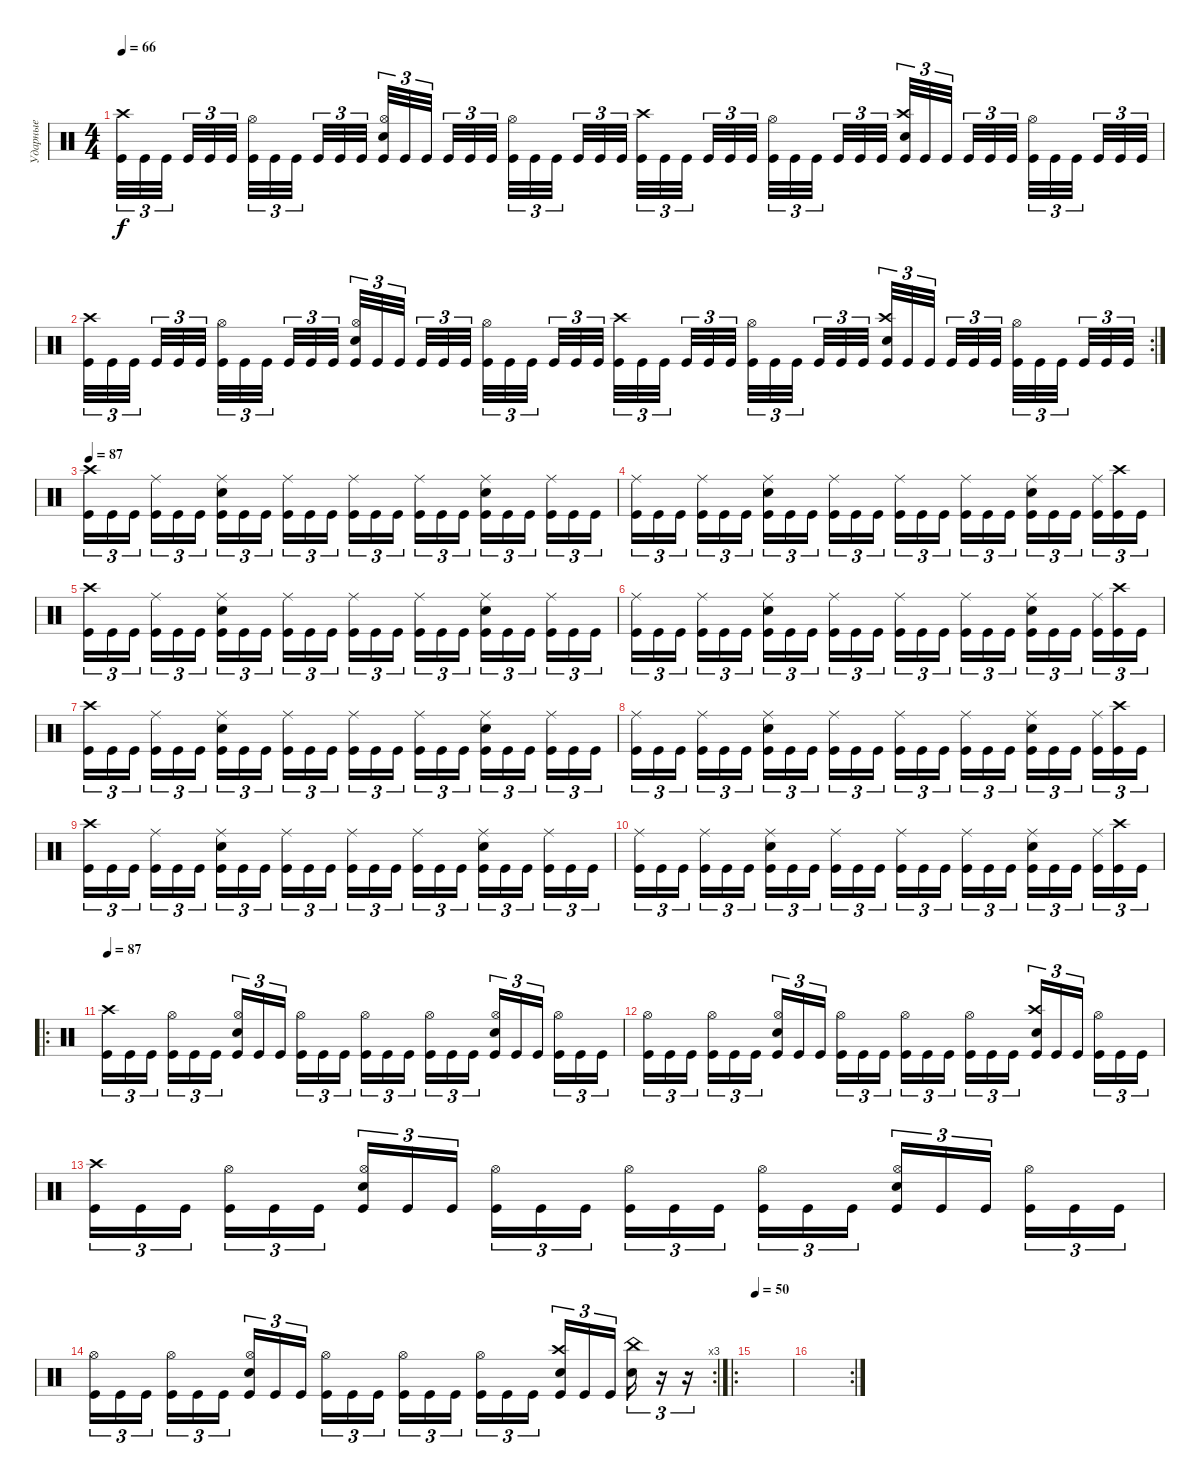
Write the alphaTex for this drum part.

\track ("Ударные" "Ударные") {instrument percussion}
\staff {score}
\articulation defaults
\ts (4 4)
\tempo 66
\clef neutral
\ks c
("Kick (hit)" "Crash high (hit)").32{tu (3 2) dy f} "Kick (hit)".32{tu (3 2)} "Kick (hit)".32{tu (3 2) beam splitsecondary} "Kick (hit)".32{tu (3 2)} "Kick (hit)".32{tu (3 2)} "Kick (hit)".32{tu (3 2) beam splitsecondary} ("Kick (hit)" "Hi-Hat (open)").32{tu (3 2)} "Kick (hit)".32{tu (3 2)} "Kick (hit)".32{tu (3 2) beam splitsecondary} "Kick (hit)".32{tu (3 2)} "Kick (hit)".32{tu (3 2)} "Kick (hit)".32{tu (3 2)} ("Kick (hit)" "Hi-Hat (open)" "Snare (hit) 2").32{tu (3 2)} "Kick (hit)".32{tu (3 2)} "Kick (hit)".32{tu (3 2) beam splitsecondary} "Kick (hit)".32{tu (3 2)} "Kick (hit)".32{tu (3 2)} "Kick (hit)".32{tu (3 2) beam splitsecondary} ("Kick (hit)" "Hi-Hat (open)").32{tu (3 2)} "Kick (hit)".32{tu (3 2)} "Kick (hit)".32{tu (3 2) beam splitsecondary} "Kick (hit)".32{tu (3 2)} "Kick (hit)".32{tu (3 2)} "Kick (hit)".32{tu (3 2)} ("Kick (hit)" "Crash high (hit)").32{tu (3 2)} "Kick (hit)".32{tu (3 2)} "Kick (hit)".32{tu (3 2) beam splitsecondary} "Kick (hit)".32{tu (3 2)} "Kick (hit)".32{tu (3 2)} "Kick (hit)".32{tu (3 2) beam splitsecondary} ("Kick (hit)" "Hi-Hat (open)").32{tu (3 2)} "Kick (hit)".32{tu (3 2)} "Kick (hit)".32{tu (3 2) beam splitsecondary} "Kick (hit)".32{tu (3 2)} "Kick (hit)".32{tu (3 2)} "Kick (hit)".32{tu (3 2)} ("Kick (hit)" "Crash high (hit)" "Snare (hit) 2").32{tu (3 2)} "Kick (hit)".32{tu (3 2)} "Kick (hit)".32{tu (3 2) beam splitsecondary} "Kick (hit)".32{tu (3 2)} "Kick (hit)".32{tu (3 2)} "Kick (hit)".32{tu (3 2) beam splitsecondary} ("Kick (hit)" "Hi-Hat (open)").32{tu (3 2)} "Kick (hit)".32{tu (3 2)} "Kick (hit)".32{tu (3 2) beam splitsecondary} "Kick (hit)".32{tu (3 2)} "Kick (hit)".32{tu (3 2)} "Kick (hit)".32{tu (3 2)} |
\rc 2
("Kick (hit)" "Crash high (hit)").32{tu (3 2)} "Kick (hit)".32{tu (3 2)} "Kick (hit)".32{tu (3 2) beam splitsecondary} "Kick (hit)".32{tu (3 2)} "Kick (hit)".32{tu (3 2)} "Kick (hit)".32{tu (3 2) beam splitsecondary} ("Kick (hit)" "Hi-Hat (open)").32{tu (3 2)} "Kick (hit)".32{tu (3 2)} "Kick (hit)".32{tu (3 2) beam splitsecondary} "Kick (hit)".32{tu (3 2)} "Kick (hit)".32{tu (3 2)} "Kick (hit)".32{tu (3 2)} ("Kick (hit)" "Hi-Hat (open)" "Snare (hit) 2").32{tu (3 2)} "Kick (hit)".32{tu (3 2)} "Kick (hit)".32{tu (3 2) beam splitsecondary} "Kick (hit)".32{tu (3 2)} "Kick (hit)".32{tu (3 2)} "Kick (hit)".32{tu (3 2) beam splitsecondary} ("Kick (hit)" "Hi-Hat (open)").32{tu (3 2)} "Kick (hit)".32{tu (3 2)} "Kick (hit)".32{tu (3 2) beam splitsecondary} "Kick (hit)".32{tu (3 2)} "Kick (hit)".32{tu (3 2)} "Kick (hit)".32{tu (3 2)} ("Kick (hit)" "Crash high (hit)").32{tu (3 2)} "Kick (hit)".32{tu (3 2)} "Kick (hit)".32{tu (3 2) beam splitsecondary} "Kick (hit)".32{tu (3 2)} "Kick (hit)".32{tu (3 2)} "Kick (hit)".32{tu (3 2) beam splitsecondary} ("Kick (hit)" "Hi-Hat (open)").32{tu (3 2)} "Kick (hit)".32{tu (3 2)} "Kick (hit)".32{tu (3 2) beam splitsecondary} "Kick (hit)".32{tu (3 2)} "Kick (hit)".32{tu (3 2)} "Kick (hit)".32{tu (3 2)} ("Kick (hit)" "Crash high (hit)" "Snare (hit) 2").32{tu (3 2)} "Kick (hit)".32{tu (3 2)} "Kick (hit)".32{tu (3 2) beam splitsecondary} "Kick (hit)".32{tu (3 2)} "Kick (hit)".32{tu (3 2)} "Kick (hit)".32{tu (3 2) beam splitsecondary} ("Kick (hit)" "Hi-Hat (open)").32{tu (3 2)} "Kick (hit)".32{tu (3 2)} "Kick (hit)".32{tu (3 2) beam splitsecondary} "Kick (hit)".32{tu (3 2)} "Kick (hit)".32{tu (3 2)} "Kick (hit)".32{tu (3 2)} |
\tempo 87
("Crash high (hit)" "Kick (hit)").16{tu (3 2)} "Kick (hit)".16{tu (3 2)} "Kick (hit)".16{tu (3 2) beam splitsecondary} ("Ride (middle)" "Kick (hit)").16{tu (3 2)} "Kick (hit)".16{tu (3 2)} "Kick (hit)".16{tu (3 2)} ("Ride (middle)" "Snare (hit) 2" "Kick (hit)").16{tu (3 2)} "Kick (hit)".16{tu (3 2)} "Kick (hit)".16{tu (3 2) beam splitsecondary} ("Ride (middle)" "Kick (hit)").16{tu (3 2)} "Kick (hit)".16{tu (3 2)} "Kick (hit)".16{tu (3 2)} ("Ride (middle)" "Kick (hit)").16{tu (3 2)} "Kick (hit)".16{tu (3 2)} "Kick (hit)".16{tu (3 2) beam splitsecondary} ("Ride (middle)" "Kick (hit)").16{tu (3 2)} "Kick (hit)".16{tu (3 2)} "Kick (hit)".16{tu (3 2)} ("Ride (middle)" "Snare (hit) 2" "Kick (hit)").16{tu (3 2)} "Kick (hit)".16{tu (3 2)} "Kick (hit)".16{tu (3 2) beam splitsecondary} ("Ride (middle)" "Kick (hit)").16{tu (3 2)} "Kick (hit)".16{tu (3 2)} "Kick (hit)".16{tu (3 2)} |
("Ride (middle)" "Kick (hit)").16{tu (3 2)} "Kick (hit)".16{tu (3 2)} "Kick (hit)".16{tu (3 2) beam splitsecondary} ("Ride (middle)" "Kick (hit)").16{tu (3 2)} "Kick (hit)".16{tu (3 2)} "Kick (hit)".16{tu (3 2)} ("Ride (middle)" "Snare (hit) 2" "Kick (hit)").16{tu (3 2)} "Kick (hit)".16{tu (3 2)} "Kick (hit)".16{tu (3 2) beam splitsecondary} ("Ride (middle)" "Kick (hit)").16{tu (3 2)} "Kick (hit)".16{tu (3 2)} "Kick (hit)".16{tu (3 2)} ("Ride (middle)" "Kick (hit)").16{tu (3 2)} "Kick (hit)".16{tu (3 2)} "Kick (hit)".16{tu (3 2) beam splitsecondary} ("Ride (middle)" "Kick (hit)").16{tu (3 2)} "Kick (hit)".16{tu (3 2)} "Kick (hit)".16{tu (3 2)} ("Ride (middle)" "Snare (hit) 2" "Kick (hit)").16{tu (3 2)} "Kick (hit)".16{tu (3 2)} "Kick (hit)".16{tu (3 2) beam splitsecondary} ("Ride (middle)" "Kick (hit)").16{tu (3 2)} ("Crash high (hit)" "Kick (hit)").16{tu (3 2)} "Kick (hit)".16{tu (3 2)} |
("Crash high (hit)" "Kick (hit)").16{tu (3 2)} "Kick (hit)".16{tu (3 2)} "Kick (hit)".16{tu (3 2) beam splitsecondary} ("Ride (middle)" "Kick (hit)").16{tu (3 2)} "Kick (hit)".16{tu (3 2)} "Kick (hit)".16{tu (3 2)} ("Ride (middle)" "Snare (hit) 2" "Kick (hit)").16{tu (3 2)} "Kick (hit)".16{tu (3 2)} "Kick (hit)".16{tu (3 2) beam splitsecondary} ("Ride (middle)" "Kick (hit)").16{tu (3 2)} "Kick (hit)".16{tu (3 2)} "Kick (hit)".16{tu (3 2)} ("Ride (middle)" "Kick (hit)").16{tu (3 2)} "Kick (hit)".16{tu (3 2)} "Kick (hit)".16{tu (3 2) beam splitsecondary} ("Ride (middle)" "Kick (hit)").16{tu (3 2)} "Kick (hit)".16{tu (3 2)} "Kick (hit)".16{tu (3 2)} ("Ride (middle)" "Snare (hit) 2" "Kick (hit)").16{tu (3 2)} "Kick (hit)".16{tu (3 2)} "Kick (hit)".16{tu (3 2) beam splitsecondary} ("Ride (middle)" "Kick (hit)").16{tu (3 2)} "Kick (hit)".16{tu (3 2)} "Kick (hit)".16{tu (3 2)} |
("Ride (middle)" "Kick (hit)").16{tu (3 2)} "Kick (hit)".16{tu (3 2)} "Kick (hit)".16{tu (3 2) beam splitsecondary} ("Ride (middle)" "Kick (hit)").16{tu (3 2)} "Kick (hit)".16{tu (3 2)} "Kick (hit)".16{tu (3 2)} ("Ride (middle)" "Snare (hit) 2" "Kick (hit)").16{tu (3 2)} "Kick (hit)".16{tu (3 2)} "Kick (hit)".16{tu (3 2) beam splitsecondary} ("Ride (middle)" "Kick (hit)").16{tu (3 2)} "Kick (hit)".16{tu (3 2)} "Kick (hit)".16{tu (3 2)} ("Ride (middle)" "Kick (hit)").16{tu (3 2)} "Kick (hit)".16{tu (3 2)} "Kick (hit)".16{tu (3 2) beam splitsecondary} ("Ride (middle)" "Kick (hit)").16{tu (3 2)} "Kick (hit)".16{tu (3 2)} "Kick (hit)".16{tu (3 2)} ("Ride (middle)" "Snare (hit) 2" "Kick (hit)").16{tu (3 2)} "Kick (hit)".16{tu (3 2)} "Kick (hit)".16{tu (3 2) beam splitsecondary} ("Ride (middle)" "Kick (hit)").16{tu (3 2)} ("Crash high (hit)" "Kick (hit)").16{tu (3 2)} "Kick (hit)".16{tu (3 2)} |
("Crash high (hit)" "Kick (hit)").16{tu (3 2)} "Kick (hit)".16{tu (3 2)} "Kick (hit)".16{tu (3 2) beam splitsecondary} ("Ride (middle)" "Kick (hit)").16{tu (3 2)} "Kick (hit)".16{tu (3 2)} "Kick (hit)".16{tu (3 2)} ("Ride (middle)" "Snare (hit) 2" "Kick (hit)").16{tu (3 2)} "Kick (hit)".16{tu (3 2)} "Kick (hit)".16{tu (3 2) beam splitsecondary} ("Ride (middle)" "Kick (hit)").16{tu (3 2)} "Kick (hit)".16{tu (3 2)} "Kick (hit)".16{tu (3 2)} ("Ride (middle)" "Kick (hit)").16{tu (3 2)} "Kick (hit)".16{tu (3 2)} "Kick (hit)".16{tu (3 2) beam splitsecondary} ("Ride (middle)" "Kick (hit)").16{tu (3 2)} "Kick (hit)".16{tu (3 2)} "Kick (hit)".16{tu (3 2)} ("Ride (middle)" "Snare (hit) 2" "Kick (hit)").16{tu (3 2)} "Kick (hit)".16{tu (3 2)} "Kick (hit)".16{tu (3 2) beam splitsecondary} ("Ride (middle)" "Kick (hit)").16{tu (3 2)} "Kick (hit)".16{tu (3 2)} "Kick (hit)".16{tu (3 2)} |
("Ride (middle)" "Kick (hit)").16{tu (3 2)} "Kick (hit)".16{tu (3 2)} "Kick (hit)".16{tu (3 2) beam splitsecondary} ("Ride (middle)" "Kick (hit)").16{tu (3 2)} "Kick (hit)".16{tu (3 2)} "Kick (hit)".16{tu (3 2)} ("Ride (middle)" "Snare (hit) 2" "Kick (hit)").16{tu (3 2)} "Kick (hit)".16{tu (3 2)} "Kick (hit)".16{tu (3 2) beam splitsecondary} ("Ride (middle)" "Kick (hit)").16{tu (3 2)} "Kick (hit)".16{tu (3 2)} "Kick (hit)".16{tu (3 2)} ("Ride (middle)" "Kick (hit)").16{tu (3 2)} "Kick (hit)".16{tu (3 2)} "Kick (hit)".16{tu (3 2) beam splitsecondary} ("Ride (middle)" "Kick (hit)").16{tu (3 2)} "Kick (hit)".16{tu (3 2)} "Kick (hit)".16{tu (3 2)} ("Ride (middle)" "Snare (hit) 2" "Kick (hit)").16{tu (3 2)} "Kick (hit)".16{tu (3 2)} "Kick (hit)".16{tu (3 2) beam splitsecondary} ("Ride (middle)" "Kick (hit)").16{tu (3 2)} ("Crash high (hit)" "Kick (hit)").16{tu (3 2)} "Kick (hit)".16{tu (3 2)} |
("Crash high (hit)" "Kick (hit)").16{tu (3 2)} "Kick (hit)".16{tu (3 2)} "Kick (hit)".16{tu (3 2) beam splitsecondary} ("Ride (middle)" "Kick (hit)").16{tu (3 2)} "Kick (hit)".16{tu (3 2)} "Kick (hit)".16{tu (3 2)} ("Ride (middle)" "Snare (hit) 2" "Kick (hit)").16{tu (3 2)} "Kick (hit)".16{tu (3 2)} "Kick (hit)".16{tu (3 2) beam splitsecondary} ("Ride (middle)" "Kick (hit)").16{tu (3 2)} "Kick (hit)".16{tu (3 2)} "Kick (hit)".16{tu (3 2)} ("Ride (middle)" "Kick (hit)").16{tu (3 2)} "Kick (hit)".16{tu (3 2)} "Kick (hit)".16{tu (3 2) beam splitsecondary} ("Ride (middle)" "Kick (hit)").16{tu (3 2)} "Kick (hit)".16{tu (3 2)} "Kick (hit)".16{tu (3 2)} ("Ride (middle)" "Snare (hit) 2" "Kick (hit)").16{tu (3 2)} "Kick (hit)".16{tu (3 2)} "Kick (hit)".16{tu (3 2) beam splitsecondary} ("Ride (middle)" "Kick (hit)").16{tu (3 2)} "Kick (hit)".16{tu (3 2)} "Kick (hit)".16{tu (3 2)} |
("Ride (middle)" "Kick (hit)").16{tu (3 2)} "Kick (hit)".16{tu (3 2)} "Kick (hit)".16{tu (3 2) beam splitsecondary} ("Ride (middle)" "Kick (hit)").16{tu (3 2)} "Kick (hit)".16{tu (3 2)} "Kick (hit)".16{tu (3 2)} ("Ride (middle)" "Snare (hit) 2" "Kick (hit)").16{tu (3 2)} "Kick (hit)".16{tu (3 2)} "Kick (hit)".16{tu (3 2) beam splitsecondary} ("Ride (middle)" "Kick (hit)").16{tu (3 2)} "Kick (hit)".16{tu (3 2)} "Kick (hit)".16{tu (3 2)} ("Ride (middle)" "Kick (hit)").16{tu (3 2)} "Kick (hit)".16{tu (3 2)} "Kick (hit)".16{tu (3 2) beam splitsecondary} ("Ride (middle)" "Kick (hit)").16{tu (3 2)} "Kick (hit)".16{tu (3 2)} "Kick (hit)".16{tu (3 2)} ("Ride (middle)" "Snare (hit) 2" "Kick (hit)").16{tu (3 2)} "Kick (hit)".16{tu (3 2)} "Kick (hit)".16{tu (3 2) beam splitsecondary} ("Ride (middle)" "Kick (hit)").16{tu (3 2)} ("Crash high (hit)" "Kick (hit)").16{tu (3 2)} "Kick (hit)".16{tu (3 2)} |
\ro
\tempo 87
("Crash high (hit)" "Kick (hit)").16{tu (3 2)} "Kick (hit)".16{tu (3 2)} "Kick (hit)".16{tu (3 2) beam splitsecondary} ("Hi-Hat (open)" "Kick (hit)").16{tu (3 2)} "Kick (hit)".16{tu (3 2)} "Kick (hit)".16{tu (3 2)} ("Snare (hit) 2" "Hi-Hat (open)" "Kick (hit)").16{tu (3 2)} "Kick (hit)".16{tu (3 2)} "Kick (hit)".16{tu (3 2) beam splitsecondary} ("Hi-Hat (open)" "Kick (hit)").16{tu (3 2)} "Kick (hit)".16{tu (3 2)} "Kick (hit)".16{tu (3 2)} ("Hi-Hat (open)" "Kick (hit)").16{tu (3 2)} "Kick (hit)".16{tu (3 2)} "Kick (hit)".16{tu (3 2) beam splitsecondary} ("Hi-Hat (open)" "Kick (hit)").16{tu (3 2)} "Kick (hit)".16{tu (3 2)} "Kick (hit)".16{tu (3 2)} ("Snare (hit) 2" "Hi-Hat (open)" "Kick (hit)").16{tu (3 2)} "Kick (hit)".16{tu (3 2)} "Kick (hit)".16{tu (3 2) beam splitsecondary} ("Hi-Hat (open)" "Kick (hit)").16{tu (3 2)} "Kick (hit)".16{tu (3 2)} "Kick (hit)".16{tu (3 2)} |
("Hi-Hat (open)" "Kick (hit)").16{tu (3 2)} "Kick (hit)".16{tu (3 2)} "Kick (hit)".16{tu (3 2) beam splitsecondary} ("Hi-Hat (open)" "Kick (hit)").16{tu (3 2)} "Kick (hit)".16{tu (3 2)} "Kick (hit)".16{tu (3 2)} ("Snare (hit) 2" "Hi-Hat (open)" "Kick (hit)").16{tu (3 2)} "Kick (hit)".16{tu (3 2)} "Kick (hit)".16{tu (3 2) beam splitsecondary} ("Hi-Hat (open)" "Kick (hit)").16{tu (3 2)} "Kick (hit)".16{tu (3 2)} "Kick (hit)".16{tu (3 2)} ("Hi-Hat (open)" "Kick (hit)").16{tu (3 2)} "Kick (hit)".16{tu (3 2)} "Kick (hit)".16{tu (3 2) beam splitsecondary} ("Hi-Hat (open)" "Kick (hit)").16{tu (3 2)} "Kick (hit)".16{tu (3 2)} "Kick (hit)".16{tu (3 2)} ("Snare (hit) 2" "Crash high (hit)" "Kick (hit)").16{tu (3 2)} "Kick (hit)".16{tu (3 2)} "Kick (hit)".16{tu (3 2) beam splitsecondary} ("Hi-Hat (open)" "Kick (hit)").16{tu (3 2)} "Kick (hit)".16{tu (3 2)} "Kick (hit)".16{tu (3 2)} |
("Crash high (hit)" "Kick (hit)").16{tu (3 2)} "Kick (hit)".16{tu (3 2)} "Kick (hit)".16{tu (3 2) beam splitsecondary} ("Hi-Hat (open)" "Kick (hit)").16{tu (3 2)} "Kick (hit)".16{tu (3 2)} "Kick (hit)".16{tu (3 2)} ("Snare (hit) 2" "Hi-Hat (open)" "Kick (hit)").16{tu (3 2)} "Kick (hit)".16{tu (3 2)} "Kick (hit)".16{tu (3 2) beam splitsecondary} ("Hi-Hat (open)" "Kick (hit)").16{tu (3 2)} "Kick (hit)".16{tu (3 2)} "Kick (hit)".16{tu (3 2)} ("Hi-Hat (open)" "Kick (hit)").16{tu (3 2)} "Kick (hit)".16{tu (3 2)} "Kick (hit)".16{tu (3 2) beam splitsecondary} ("Hi-Hat (open)" "Kick (hit)").16{tu (3 2)} "Kick (hit)".16{tu (3 2)} "Kick (hit)".16{tu (3 2)} ("Snare (hit) 2" "Hi-Hat (open)" "Kick (hit)").16{tu (3 2)} "Kick (hit)".16{tu (3 2)} "Kick (hit)".16{tu (3 2) beam splitsecondary} ("Hi-Hat (open)" "Kick (hit)").16{tu (3 2)} "Kick (hit)".16{tu (3 2)} "Kick (hit)".16{tu (3 2)} |
\rc 3
("Hi-Hat (open)" "Kick (hit)").16{tu (3 2)} "Kick (hit)".16{tu (3 2)} "Kick (hit)".16{tu (3 2) beam splitsecondary} ("Hi-Hat (open)" "Kick (hit)").16{tu (3 2)} "Kick (hit)".16{tu (3 2)} "Kick (hit)".16{tu (3 2)} ("Snare (hit) 2" "Hi-Hat (open)" "Kick (hit)").16{tu (3 2)} "Kick (hit)".16{tu (3 2)} "Kick (hit)".16{tu (3 2) beam splitsecondary} ("Hi-Hat (open)" "Kick (hit)").16{tu (3 2)} "Kick (hit)".16{tu (3 2)} "Kick (hit)".16{tu (3 2)} ("Hi-Hat (open)" "Kick (hit)").16{tu (3 2)} "Kick (hit)".16{tu (3 2)} "Kick (hit)".16{tu (3 2) beam splitsecondary} ("Hi-Hat (open)" "Kick (hit)").16{tu (3 2)} "Kick (hit)".16{tu (3 2)} "Kick (hit)".16{tu (3 2)} ("Snare (hit) 2" "Crash high (hit)" "Kick (hit)").16{tu (3 2)} "Kick (hit)".16{tu (3 2)} "Kick (hit)".16{tu (3 2) beam splitsecondary} ("China (hit)" "Snare (hit) 2").16{tu (3 2)} r.16{tu (3 2)} r.16{tu (3 2)} |
\ro
\tempo 50
|
\rc 2
